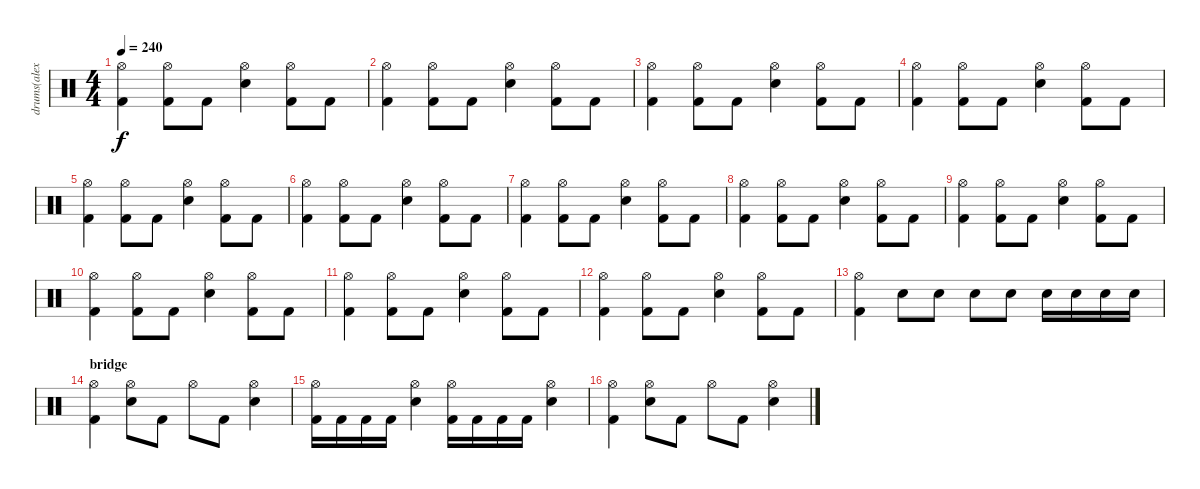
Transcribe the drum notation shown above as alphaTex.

\track ("drums(alex holzshwart)" "drums(alex") {instrument percussion}
\staff {score}
\articulation defaults
\ts (4 4)
\tempo 240
\clef neutral
\ks c
("Hi-Hat (open)" "Kick (hit) 2").4{dy f} ("Hi-Hat (open)" "Kick (hit) 2").8 "Kick (hit) 2".8 ("Hi-Hat (open)" "Electric Snare (hit)").4 ("Hi-Hat (open)" "Kick (hit) 2").8 "Kick (hit) 2".8 |
("Hi-Hat (open)" "Kick (hit) 2").4 ("Hi-Hat (open)" "Kick (hit) 2").8 "Kick (hit) 2".8 ("Hi-Hat (open)" "Electric Snare (hit)").4 ("Hi-Hat (open)" "Kick (hit) 2").8 "Kick (hit) 2".8 |
("Hi-Hat (open)" "Kick (hit) 2").4 ("Hi-Hat (open)" "Kick (hit) 2").8 "Kick (hit) 2".8 ("Hi-Hat (open)" "Electric Snare (hit)").4 ("Hi-Hat (open)" "Kick (hit) 2").8 "Kick (hit) 2".8 |
("Hi-Hat (open)" "Kick (hit) 2").4 ("Hi-Hat (open)" "Kick (hit) 2").8 "Kick (hit) 2".8 ("Hi-Hat (open)" "Electric Snare (hit)").4 ("Hi-Hat (open)" "Kick (hit) 2").8 "Kick (hit) 2".8 |
("Hi-Hat (open)" "Kick (hit) 2").4 ("Hi-Hat (open)" "Kick (hit) 2").8 "Kick (hit) 2".8 ("Hi-Hat (open)" "Electric Snare (hit)").4 ("Hi-Hat (open)" "Kick (hit) 2").8 "Kick (hit) 2".8 |
("Hi-Hat (open)" "Kick (hit) 2").4 ("Hi-Hat (open)" "Kick (hit) 2").8 "Kick (hit) 2".8 ("Hi-Hat (open)" "Electric Snare (hit)").4 ("Hi-Hat (open)" "Kick (hit) 2").8 "Kick (hit) 2".8 |
("Hi-Hat (open)" "Kick (hit) 2").4 ("Hi-Hat (open)" "Kick (hit) 2").8 "Kick (hit) 2".8 ("Hi-Hat (open)" "Electric Snare (hit)").4 ("Hi-Hat (open)" "Kick (hit) 2").8 "Kick (hit) 2".8 |
("Hi-Hat (open)" "Kick (hit) 2").4 ("Hi-Hat (open)" "Kick (hit) 2").8 "Kick (hit) 2".8 ("Hi-Hat (open)" "Electric Snare (hit)").4 ("Hi-Hat (open)" "Kick (hit) 2").8 "Kick (hit) 2".8 |
("Hi-Hat (open)" "Kick (hit) 2").4 ("Hi-Hat (open)" "Kick (hit) 2").8 "Kick (hit) 2".8 ("Hi-Hat (open)" "Electric Snare (hit)").4 ("Hi-Hat (open)" "Kick (hit) 2").8 "Kick (hit) 2".8 |
("Hi-Hat (open)" "Kick (hit) 2").4 ("Hi-Hat (open)" "Kick (hit) 2").8 "Kick (hit) 2".8 ("Hi-Hat (open)" "Electric Snare (hit)").4 ("Hi-Hat (open)" "Kick (hit) 2").8 "Kick (hit) 2".8 |
("Hi-Hat (open)" "Kick (hit) 2").4 ("Hi-Hat (open)" "Kick (hit) 2").8 "Kick (hit) 2".8 ("Hi-Hat (open)" "Electric Snare (hit)").4 ("Hi-Hat (open)" "Kick (hit) 2").8 "Kick (hit) 2".8 |
("Hi-Hat (open)" "Kick (hit) 2").4 ("Hi-Hat (open)" "Kick (hit) 2").8 "Kick (hit) 2".8 ("Hi-Hat (open)" "Electric Snare (hit)").4 ("Hi-Hat (open)" "Kick (hit) 2").8 "Kick (hit) 2".8 |
("Hi-Hat (open)" "Kick (hit) 2").4 "Electric Snare (hit)".8 "Electric Snare (hit)".8 "Electric Snare (hit)".8 "Electric Snare (hit)".8 "Electric Snare (hit)".16 "Electric Snare (hit)".16 "Electric Snare (hit)".16 "Electric Snare (hit)".16 |
\section ("" "bridge")
("Hi-Hat (open)" "Kick (hit) 2").4 ("Hi-Hat (open)" "Electric Snare (hit)").8 "Kick (hit) 2".8 "Hi-Hat (open)".8 "Kick (hit) 2".8 ("Hi-Hat (open)" "Electric Snare (hit)").4 |
("Hi-Hat (open)" "Kick (hit) 2").16 "Kick (hit) 2".16 "Kick (hit) 2".16 "Kick (hit) 2".16 ("Hi-Hat (open)" "Electric Snare (hit)").4 ("Hi-Hat (open)" "Kick (hit) 2").16 "Kick (hit) 2".16 "Kick (hit) 2".16 "Kick (hit) 2".16 ("Hi-Hat (open)" "Electric Snare (hit)").4 |
("Hi-Hat (open)" "Kick (hit) 2").4 ("Hi-Hat (open)" "Electric Snare (hit)").8 "Kick (hit) 2".8 "Hi-Hat (open)".8 "Kick (hit) 2".8 ("Hi-Hat (open)" "Electric Snare (hit)").4
